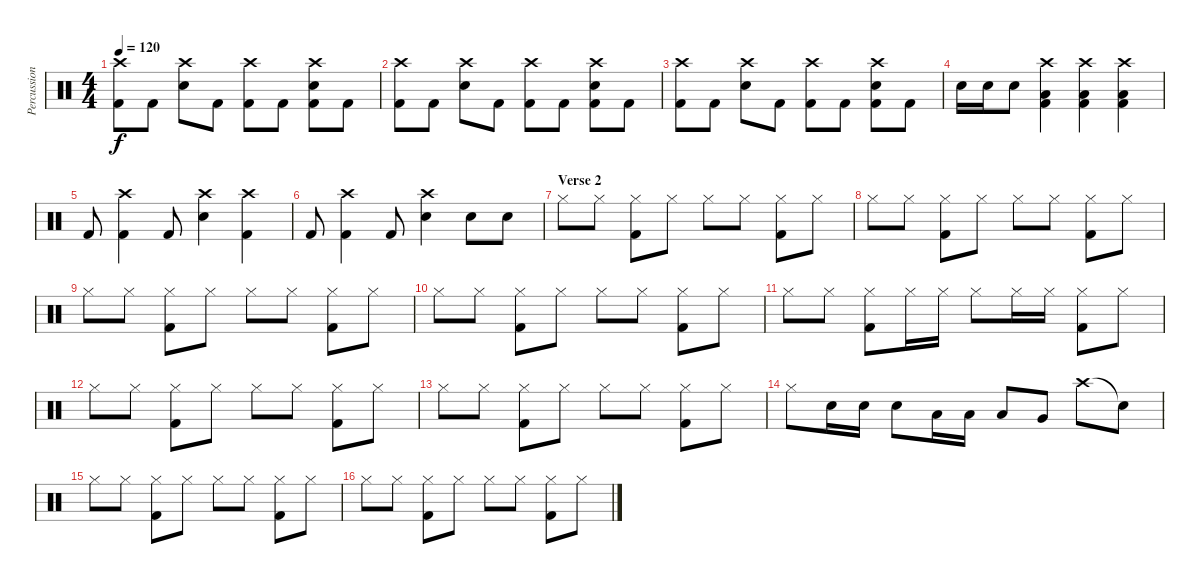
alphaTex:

\track ("Percussion" "Percussion") {instrument percussion}
\staff {score}
\articulation defaults
\ts (4 4)
\tempo 120
\clef neutral
\ks c
("Crash high (hit)" "Kick (hit) 2").8{dy f} "Kick (hit) 2".8 ("Crash high (hit)" "Electric Snare (hit)").8 "Kick (hit) 2".8 ("Crash high (hit)" "Kick (hit) 2").8 "Kick (hit) 2".8 ("Crash high (hit)" "Electric Snare (hit)" "Kick (hit) 2").8 "Kick (hit) 2".8 |
("Crash high (hit)" "Kick (hit) 2").8 "Kick (hit) 2".8 ("Crash high (hit)" "Electric Snare (hit)").8 "Kick (hit) 2".8 ("Crash high (hit)" "Kick (hit) 2").8 "Kick (hit) 2".8 ("Crash high (hit)" "Electric Snare (hit)" "Kick (hit) 2").8 "Kick (hit) 2".8 |
("Crash high (hit)" "Kick (hit) 2").8 "Kick (hit) 2".8 ("Crash high (hit)" "Electric Snare (hit)").8 "Kick (hit) 2".8 ("Crash high (hit)" "Kick (hit) 2").8 "Kick (hit) 2".8 ("Crash high (hit)" "Electric Snare (hit)" "Kick (hit) 2").8 "Kick (hit) 2".8 |
"Electric Snare (hit)".16 "Electric Snare (hit)".16 "Electric Snare (hit)".8 ("Crash high (hit)" "Low Floor Tom (hit)" "Kick (hit) 2").4 ("Crash high (hit)" "Low Floor Tom (hit)" "Kick (hit) 2").4 ("Crash high (hit)" "Low Floor Tom (hit)" "Kick (hit) 2").4 |
"Kick (hit) 2".8 ("Crash high (hit)" "Kick (hit) 2").4 "Kick (hit) 2".8 ("Crash high (hit)" "Electric Snare (hit)").4 ("Crash high (hit)" "Kick (hit) 2").4 |
"Kick (hit) 2".8 ("Crash high (hit)" "Kick (hit) 2").4 "Kick (hit) 2".8 ("Crash high (hit)" "Electric Snare (hit)").4 "Electric Snare (hit)".8 "Electric Snare (hit)".8 |
\section ("" "Verse 2")
"Hi-Hat (closed)".8 "Hi-Hat (closed)".8 ("Hi-Hat (closed)" "Kick (hit) 2").8 "Hi-Hat (closed)".8 "Hi-Hat (closed)".8 "Hi-Hat (closed)".8 ("Hi-Hat (closed)" "Kick (hit) 2").8 "Hi-Hat (closed)".8 |
"Hi-Hat (closed)".8 "Hi-Hat (closed)".8 ("Hi-Hat (closed)" "Kick (hit) 2").8 "Hi-Hat (closed)".8 "Hi-Hat (closed)".8 "Hi-Hat (closed)".8 ("Hi-Hat (closed)" "Kick (hit) 2").8 "Hi-Hat (closed)".8 |
"Hi-Hat (closed)".8 "Hi-Hat (closed)".8 ("Hi-Hat (closed)" "Kick (hit) 2").8 "Hi-Hat (closed)".8 "Hi-Hat (closed)".8 "Hi-Hat (closed)".8 ("Hi-Hat (closed)" "Kick (hit) 2").8 "Hi-Hat (closed)".8 |
"Hi-Hat (closed)".8 "Hi-Hat (closed)".8 ("Hi-Hat (closed)" "Kick (hit) 2").8 "Hi-Hat (closed)".8 "Hi-Hat (closed)".8 "Hi-Hat (closed)".8 ("Hi-Hat (closed)" "Kick (hit) 2").8 "Hi-Hat (closed)".8 |
"Hi-Hat (closed)".8 "Hi-Hat (closed)".8 ("Hi-Hat (closed)" "Kick (hit) 2").8 "Hi-Hat (closed)".16 "Hi-Hat (closed)".16 "Hi-Hat (closed)".8 "Hi-Hat (closed)".16 "Hi-Hat (closed)".16 ("Hi-Hat (closed)" "Kick (hit) 2").8 "Hi-Hat (closed)".8 |
"Hi-Hat (closed)".8 "Hi-Hat (closed)".8 ("Hi-Hat (closed)" "Kick (hit) 2").8 "Hi-Hat (closed)".8 "Hi-Hat (closed)".8 "Hi-Hat (closed)".8 ("Hi-Hat (closed)" "Kick (hit) 2").8 "Hi-Hat (closed)".8 |
"Hi-Hat (closed)".8 "Hi-Hat (closed)".8 ("Hi-Hat (closed)" "Kick (hit) 2").8 "Hi-Hat (closed)".8 "Hi-Hat (closed)".8 "Hi-Hat (closed)".8 ("Hi-Hat (closed)" "Kick (hit) 2").8 "Hi-Hat (closed)".8 |
"Hi-Hat (closed)".8 "Electric Snare (hit)".16 "Electric Snare (hit)".16 "Electric Snare (hit)".8 "Low Tom (hit)".16 "Low Tom (hit)".16 "Low Tom (hit)".8 "Very Low Tom (hit)".8 "Crash high (hit)".8 "Snare (hit)"{t}.8 |
"Hi-Hat (closed)".8 "Hi-Hat (closed)".8 ("Hi-Hat (closed)" "Kick (hit) 2").8 "Hi-Hat (closed)".8 "Hi-Hat (closed)".8 "Hi-Hat (closed)".8 ("Hi-Hat (closed)" "Kick (hit) 2").8 "Hi-Hat (closed)".8 |
"Hi-Hat (closed)".8 "Hi-Hat (closed)".8 ("Hi-Hat (closed)" "Kick (hit) 2").8 "Hi-Hat (closed)".8 "Hi-Hat (closed)".8 "Hi-Hat (closed)".8 ("Hi-Hat (closed)" "Kick (hit) 2").8 "Hi-Hat (closed)".8
